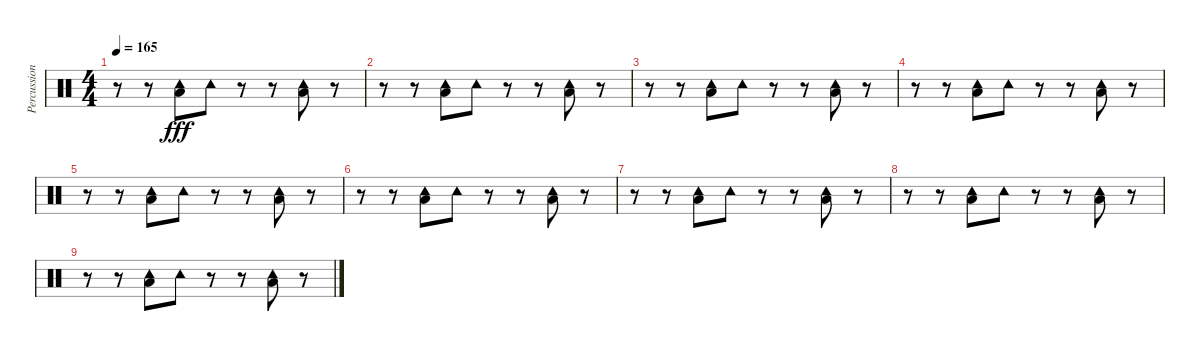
\track ("Percussion/Fills" "Percussion") {instrument percussion}
\staff {score}
\articulation defaults
\ts (4 4)
\tempo 165
\clef neutral
\ks c
r.8{dy fff} r.8 ("Tambourine (hit)" "Low Tom (hit)").8 "Tambourine (hit)".8 r.8 r.8 ("Tambourine (hit)" "Low Tom (hit)").8 r.8 |
r.8 r.8 ("Tambourine (hit)" "Low Tom (hit)").8 "Tambourine (hit)".8 r.8 r.8 ("Tambourine (hit)" "Low Tom (hit)").8 r.8 |
r.8 r.8 ("Tambourine (hit)" "Low Tom (hit)").8 "Tambourine (hit)".8 r.8 r.8 ("Tambourine (hit)" "Low Tom (hit)").8 r.8 |
r.8 r.8 ("Tambourine (hit)" "Low Tom (hit)").8 "Tambourine (hit)".8 r.8 r.8 ("Tambourine (hit)" "Low Tom (hit)").8 r.8 |
r.8 r.8 ("Tambourine (hit)" "Low Tom (hit)").8 "Tambourine (hit)".8 r.8 r.8 ("Tambourine (hit)" "Low Tom (hit)").8 r.8 |
r.8 r.8 ("Tambourine (hit)" "Low Tom (hit)").8 "Tambourine (hit)".8 r.8 r.8 ("Tambourine (hit)" "Low Tom (hit)").8 r.8 |
r.8 r.8 ("Tambourine (hit)" "Low Tom (hit)").8 "Tambourine (hit)".8 r.8 r.8 ("Tambourine (hit)" "Low Tom (hit)").8 r.8 |
r.8 r.8 ("Tambourine (hit)" "Low Tom (hit)").8 "Tambourine (hit)".8 r.8 r.8 ("Tambourine (hit)" "Low Tom (hit)").8 r.8 |
r.8 r.8 ("Tambourine (hit)" "Low Tom (hit)").8 "Tambourine (hit)".8 r.8 r.8 ("Tambourine (hit)" "Low Tom (hit)").8 r.8
